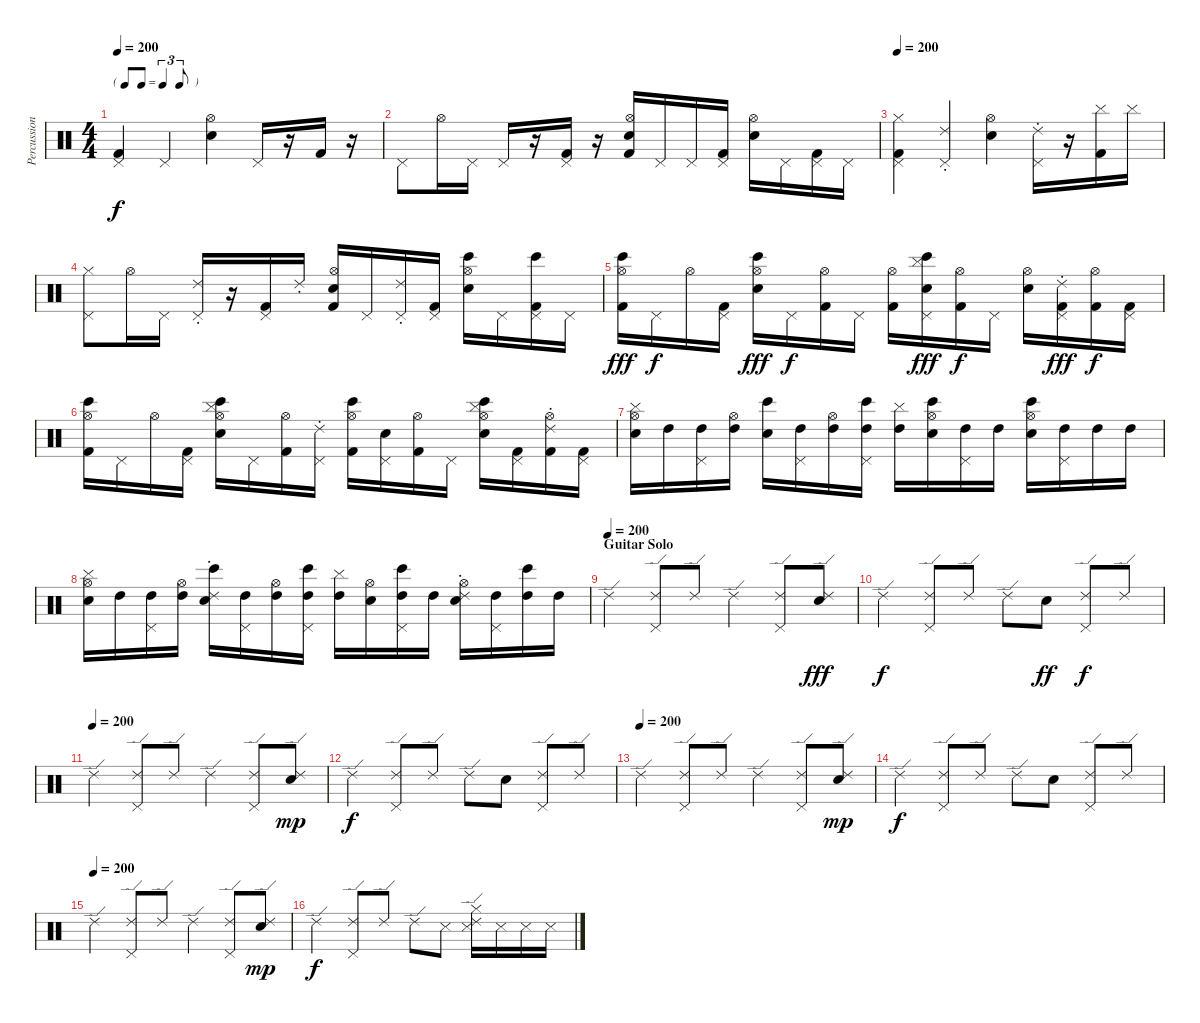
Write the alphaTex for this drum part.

\track ("Percussion" "Percussion") {instrument percussion}
\staff {score}
\articulation defaults
\ts (4 4)
\tf triplet8th
\tempo 200
\clef neutral
\ks c
("Pedal Hi-Hat (hit)" "Kick (hit) 2").4{dy f} "Pedal Hi-Hat (hit)".4 ("Hi-Hat (open)" "Electric Snare (hit)").4 "Pedal Hi-Hat (hit)".16 r.16 "Kick (hit) 2".16 r.16 |
"Pedal Hi-Hat (hit)".8 "Hi-Hat (open)".16 "Pedal Hi-Hat (hit)".16 "Pedal Hi-Hat (hit)".16 r.16 ("Pedal Hi-Hat (hit)" "Kick (hit) 2").16 r.16 ("Hi-Hat (open)" "Electric Snare (hit)" "Kick (hit) 2").16 "Pedal Hi-Hat (hit)".16 "Pedal Hi-Hat (hit)".16 ("Pedal Hi-Hat (hit)" "Kick (hit) 2").16 ("Hi-Hat (open)" "Electric Snare (hit)").16 "Pedal Hi-Hat (hit)".16 ("Pedal Hi-Hat (hit)" "Kick (hit) 2").16 "Pedal Hi-Hat (hit)".16 |
\tempo 200
("Pedal Hi-Hat (hit)" "Hi-Hat (closed)" "Kick (hit) 2").4 ("Pedal Hi-Hat (hit)" "Ride (choke) 2").4 ("Hi-Hat (open)" "Electric Snare (hit)").4 ("Pedal Hi-Hat (hit)" "Ride (choke) 2").16 r.16 ("Cymbal (hit)" "Kick (hit) 2").16 "Cymbal (hit)".16 |
("Pedal Hi-Hat (hit)" "Hi-Hat (closed)").8 "Hi-Hat (open)".16 "Pedal Hi-Hat (hit)".16 ("Pedal Hi-Hat (hit)" "Ride (choke) 2").16 r.16 ("Pedal Hi-Hat (hit)" "Kick (hit) 2").16 "Ride (choke) 2".16 ("Hi-Hat (open)" "Electric Snare (hit)" "Kick (hit) 2").16 "Pedal Hi-Hat (hit)".16 ("Pedal Hi-Hat (hit)" "Ride (choke) 2").16 ("Pedal Hi-Hat (hit)" "Kick (hit) 2").16 ("Hi-Hat (open)" "Electric Snare (hit)" "Bongo High (hit)").16 "Pedal Hi-Hat (hit)".16 ("Pedal Hi-Hat (hit)" "Bongo High (hit)" "Kick (hit) 2").16 "Pedal Hi-Hat (hit)".16 |
("Hi-Hat (open)" "Bongo High (hit)" "Kick (hit) 2").16{dy fff} "Pedal Hi-Hat (hit)".16{dy f} "Hi-Hat (open)".16 ("Pedal Hi-Hat (hit)" "Kick (hit) 2").16 ("Hi-Hat (open)" "Electric Snare (hit)" "Bongo High (hit)").16{dy fff} "Pedal Hi-Hat (hit)".16{dy f} ("Hi-Hat (open)" "Kick (hit) 2").16 "Pedal Hi-Hat (hit)".16 ("Hi-Hat (open)" "Kick (hit) 2").16 ("Pedal Hi-Hat (hit)" "Electric Snare (hit)" "Cymbal (hit)" "Bongo High (hit)").16{dy fff} ("Hi-Hat (open)" "Kick (hit) 2").16{dy f} "Pedal Hi-Hat (hit)".16 ("Hi-Hat (open)" "Electric Snare (hit)").16 ("Pedal Hi-Hat (hit)" "Ride (choke) 2" "Kick (hit) 2").16{dy fff} ("Hi-Hat (open)" "Kick (hit) 2").16{dy f} ("Pedal Hi-Hat (hit)" "Kick (hit) 2").16 |
("Hi-Hat (open)" "Bongo High (hit)" "Kick (hit) 2").16 "Pedal Hi-Hat (hit)".16 "Hi-Hat (open)".16 ("Pedal Hi-Hat (hit)" "Kick (hit) 2").16 ("Hi-Hat (open)" "Electric Snare (hit)" "Cymbal (hit)" "Bongo High (hit)").16 "Pedal Hi-Hat (hit)".16 ("Hi-Hat (open)" "Kick (hit) 2").16 ("Pedal Hi-Hat (hit)" "Ride (choke) 2").16 ("Hi-Hat (open)" "Bongo High (hit)" "Kick (hit) 2").16 ("Pedal Hi-Hat (hit)" "Electric Snare (hit)").16 ("Hi-Hat (open)" "Kick (hit) 2").16 "Pedal Hi-Hat (hit)".16 ("Hi-Hat (open)" "Electric Snare (hit)" "Cymbal (hit)" "Bongo High (hit)").16 ("Pedal Hi-Hat (hit)" "Kick (hit) 2").16 ("Hi-Hat (open)" "Ride (choke) 2" "Kick (hit) 2").16 ("Pedal Hi-Hat (hit)" "Kick (hit) 2").16 |
("Cymbal (hit)" "Hi-Hat (open)" "Electric Snare (hit)").16 "High Tom (hit)".16 ("Pedal Hi-Hat (hit)" "High Tom (hit)").16 ("Hi-Hat (open)" "High Tom (hit)").16 ("Electric Snare (hit)" "Bongo High (hit)").16 ("Pedal Hi-Hat (hit)" "High Tom (hit)").16 ("Hi-Hat (open)" "High Tom (hit)").16 ("Pedal Hi-Hat (hit)" "High Tom (hit)" "Bongo High (hit)").16 ("Cymbal (hit)" "High Tom (hit)").16 ("Hi-Hat (open)" "Electric Snare (hit)" "Bongo High (hit)").16 ("Pedal Hi-Hat (hit)" "High Tom (hit)").16 "High Tom (hit)".16 ("Hi-Hat (open)" "Electric Snare (hit)" "Bongo High (hit)").16 ("Pedal Hi-Hat (hit)" "High Tom (hit)").16 "High Tom (hit)".16 "High Tom (hit)".16 |
("Cymbal (hit)" "Hi-Hat (open)" "Electric Snare (hit)").16 "High Tom (hit)".16 ("Pedal Hi-Hat (hit)" "High Tom (hit)").16 ("Hi-Hat (open)" "High Tom (hit)").16 ("Ride (choke) 2" "Electric Snare (hit)" "Bongo High (hit)").16 ("Pedal Hi-Hat (hit)" "High Tom (hit)").16 ("Hi-Hat (open)" "High Tom (hit)").16 ("Pedal Hi-Hat (hit)" "High Tom (hit)" "Bongo High (hit)").16 ("Cymbal (hit)" "High Tom (hit)").16 ("Hi-Hat (open)" "Electric Snare (hit)").16 ("Pedal Hi-Hat (hit)" "High Tom (hit)" "Bongo High (hit)").16 "High Tom (hit)".16 ("Ride (choke) 2" "Hi-Hat (open)" "Electric Snare (hit)").16 ("Pedal Hi-Hat (hit)" "High Tom (hit)").16 ("High Tom (hit)" "Bongo High (hit)").16 "High Tom (hit)".16 |
\section ("" "Guitar Solo")
\tempo (200)
"Ride (edge) 2".4 ("Ride (edge) 2" "Pedal Hi-Hat (hit)").8 "Ride (edge) 2".8 "Ride (edge) 2".4 ("Ride (edge) 2" "Pedal Hi-Hat (hit)").8 ("Ride (edge) 2" "Snare (hit) 2").8{dy fff} |
"Ride (edge) 2".4{dy f} ("Ride (edge) 2" "Pedal Hi-Hat (hit)").8 "Ride (edge) 2".8 "Ride (edge) 2".8 "Snare (hit) 2".8{dy ff} ("Ride (edge) 2" "Pedal Hi-Hat (hit)").8{dy f} "Ride (edge) 2".8 |
\tempo (200)
"Ride (edge) 2".4 ("Ride (edge) 2" "Pedal Hi-Hat (hit)").8 "Ride (edge) 2".8 "Ride (edge) 2".4 ("Ride (edge) 2" "Pedal Hi-Hat (hit)").8 ("Ride (edge) 2" "Snare (hit) 2").8{dy mp} |
"Ride (edge) 2".4{dy f} ("Ride (edge) 2" "Pedal Hi-Hat (hit)").8 "Ride (edge) 2".8 "Ride (edge) 2".8 "Snare (hit) 2".8 ("Ride (edge) 2" "Pedal Hi-Hat (hit)").8 "Ride (edge) 2".8 |
\tempo (200)
"Ride (edge) 2".4 ("Ride (edge) 2" "Pedal Hi-Hat (hit)").8 "Ride (edge) 2".8 "Ride (edge) 2".4 ("Ride (edge) 2" "Pedal Hi-Hat (hit)").8 ("Ride (edge) 2" "Snare (hit) 2").8{dy mp} |
"Ride (edge) 2".4{dy f} ("Ride (edge) 2" "Pedal Hi-Hat (hit)").8 "Ride (edge) 2".8 "Ride (edge) 2".8 "Snare (hit) 2".8 ("Ride (edge) 2" "Pedal Hi-Hat (hit)").8 "Ride (edge) 2".8 |
\tempo (200)
"Ride (edge) 2".4 ("Ride (edge) 2" "Pedal Hi-Hat (hit)").8 "Ride (edge) 2".8 "Ride (edge) 2".4 ("Ride (edge) 2" "Pedal Hi-Hat (hit)").8 ("Ride (edge) 2" "Snare (hit) 2").8{dy mp} |
"Ride (edge) 2".4{dy f} ("Ride (edge) 2" "Pedal Hi-Hat (hit)").8 "Ride (edge) 2".8 "Ride (edge) 2".8 "Snare (side stick) 3".8 ("Ride (edge) 2" "Hi-Hat (closed)" "Snare (side stick) 3").16 "Snare (side stick) 3".16 "Snare (side stick) 3".16 "Snare (side stick) 3".16
